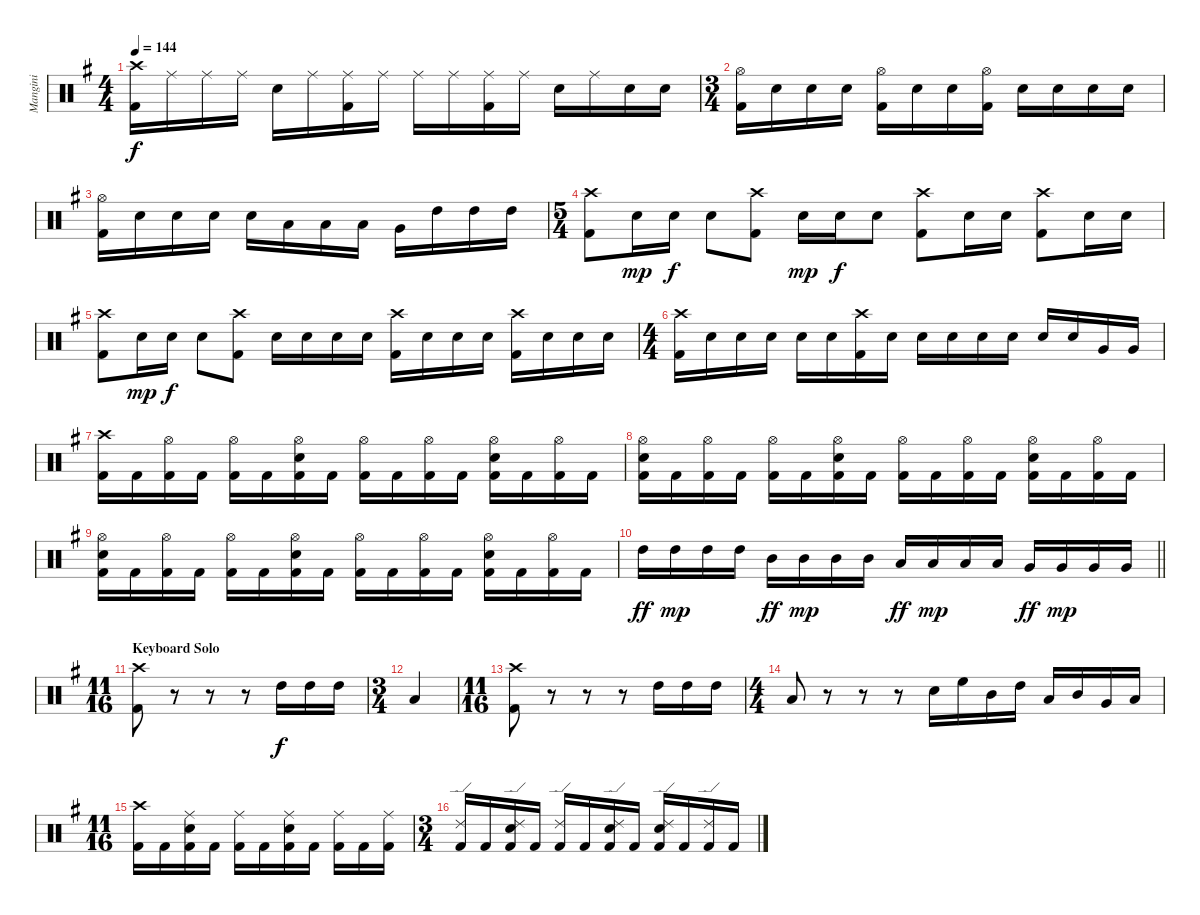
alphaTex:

\track ("Mangini" "Mangini") {instrument percussion}
\staff {score}
\articulation defaults
\ts (4 4)
\tempo 144
\clef neutral
\ks eminor
("Crash high (hit)" "Kick (hit) 2").16{dy f} "Ride (middle)".16 "Ride (middle)".16 "Ride (middle)".16 "Snare (hit) 2".16 "Ride (middle)".16 ("Ride (middle)" "Kick (hit) 2").16 "Ride (middle)".16 "Ride (middle)".16 "Ride (middle)".16 ("Ride (middle)" "Kick (hit) 2").16 "Ride (middle)".16 "Snare (hit) 2".16 "Ride (middle)".16 "Snare (hit) 2".16 "Snare (hit) 2".16 |
\ts (3 4)
("Hi-Hat (open)" "Kick (hit) 2").16 "Snare (hit) 2".16 "Snare (hit) 2".16 "Snare (hit) 2".16 ("Hi-Hat (open)" "Kick (hit) 2").16 "Snare (hit) 2".16 "Snare (hit) 2".16 ("Hi-Hat (open)" "Kick (hit) 2").16 "Snare (hit) 2".16 "Snare (hit) 2".16 "Snare (hit) 2".16 "Snare (hit) 2".16 |
("Hi-Hat (open)" "Kick (hit) 2").16 "Snare (hit) 2".16 "Snare (hit) 2".16 "Snare (hit) 2".16 "Snare (hit) 2".16 "Low Floor Tom (hit)".16 "Low Tom (hit)".16 "Low Floor Tom (hit)".16 "Very Low Tom (hit)".16 "High Tom (hit)".16 "High Tom (hit)".16 "High Tom (hit)".16 |
\ts (5 4)
("Crash high (hit)" "Kick (hit) 2").8 "Snare (hit) 2".16{dy mp} "Snare (hit) 2".16{dy f} "Snare (hit) 2".8 ("Crash high (hit)" "Kick (hit) 2").8 "Snare (hit) 2".16{dy mp} "Snare (hit) 2".16{dy f} "Snare (hit) 2".8 ("Crash high (hit)" "Kick (hit) 2").8 "Snare (hit) 2".16 "Snare (hit) 2".16 ("Crash high (hit)" "Kick (hit) 2").8 "Snare (hit) 2".16 "Snare (hit) 2".16 |
("Crash high (hit)" "Kick (hit) 2").8 "Snare (hit) 2".16{dy mp} "Snare (hit) 2".16{dy f} "Snare (hit) 2".8 ("Crash high (hit)" "Kick (hit) 2").8 "Snare (hit) 2".16 "Snare (hit) 2".16 "Snare (hit) 2".16 "Snare (hit) 2".16 ("Crash high (hit)" "Kick (hit) 2").16 "Snare (hit) 2".16 "Snare (hit) 2".16 "Snare (hit) 2".16 ("Crash high (hit)" "Kick (hit) 2").16 "Snare (hit) 2".16 "Snare (hit) 2".16 "Snare (hit) 2".16 |
\ts (4 4)
("Crash high (hit)" "Kick (hit) 2").16 "Snare (hit) 2".16 "Snare (hit) 2".16 "Snare (hit) 2".16 "Snare (hit) 2".16 "Snare (hit) 2".16 ("Crash high (hit)" "Kick (hit) 2").16 "Snare (hit) 2".16 "Snare (hit) 2".16 "Snare (hit) 2".16 "Snare (hit) 2".16 "Snare (hit) 2".16 "Snare (hit) 2".16 "Snare (hit) 2".16 "Very Low Tom (hit)".16 "Very Low Tom (hit)".16 |
("Crash high (hit)" "Kick (hit) 2").16 "Kick (hit) 2".16 ("Hi-Hat (open)" "Kick (hit) 2").16 "Kick (hit) 2".16 ("Hi-Hat (open)" "Kick (hit) 2").16 "Kick (hit) 2".16 ("Hi-Hat (open)" "Snare (hit) 2" "Kick (hit) 2").16 "Kick (hit) 2".16 ("Hi-Hat (open)" "Kick (hit) 2").16 "Kick (hit) 2".16 ("Hi-Hat (open)" "Kick (hit) 2").16 "Kick (hit) 2".16 ("Hi-Hat (open)" "Snare (hit) 2" "Kick (hit) 2").16 "Kick (hit) 2".16 ("Hi-Hat (open)" "Kick (hit) 2").16 "Kick (hit) 2".16 |
("Hi-Hat (open)" "Snare (hit) 2" "Kick (hit) 2").16 "Kick (hit) 2".16 ("Hi-Hat (open)" "Kick (hit) 2").16 "Kick (hit) 2".16 ("Hi-Hat (open)" "Kick (hit) 2").16 "Kick (hit) 2".16 ("Hi-Hat (open)" "Snare (hit) 2" "Kick (hit) 2").16 "Kick (hit) 2".16 ("Hi-Hat (open)" "Kick (hit) 2").16 "Kick (hit) 2".16 ("Hi-Hat (open)" "Kick (hit) 2").16 "Kick (hit) 2".16 ("Hi-Hat (open)" "Snare (hit) 2" "Kick (hit) 2").16 "Kick (hit) 2".16 ("Hi-Hat (open)" "Kick (hit) 2").16 "Kick (hit) 2".16 |
("Hi-Hat (open)" "Snare (hit) 2" "Kick (hit) 2").16 "Kick (hit) 2".16 ("Hi-Hat (open)" "Kick (hit) 2").16 "Kick (hit) 2".16 ("Hi-Hat (open)" "Kick (hit) 2").16 "Kick (hit) 2".16 ("Hi-Hat (open)" "Snare (hit) 2" "Kick (hit) 2").16 "Kick (hit) 2".16 ("Hi-Hat (open)" "Kick (hit) 2").16 "Kick (hit) 2".16 ("Hi-Hat (open)" "Kick (hit) 2").16 "Kick (hit) 2".16 ("Hi-Hat (open)" "Snare (hit) 2" "Kick (hit) 2").16 "Kick (hit) 2".16 ("Hi-Hat (open)" "Kick (hit) 2").16 "Kick (hit) 2".16 |
\barLineRight lightlight "High Tom (hit)".16{dy ff} "High Tom (hit)".16{dy mp} "High Tom (hit)".16 "High Tom (hit)".16 "Mid Tom (hit)".16{dy ff} "Mid Tom (hit)".16{dy mp} "Mid Tom (hit)".16 "Mid Tom (hit)".16 "Low Tom (hit)".16{dy ff} "Low Tom (hit)".16{dy mp} "Low Tom (hit)".16 "Low Tom (hit)".16 "Very Low Tom (hit)".16{dy ff} "Very Low Tom (hit)".16{dy mp} "Very Low Tom (hit)".16 "Very Low Tom (hit)".16
|
\ts (11 16)
\section ("" "Keyboard Solo")
("Crash high (hit)" "Kick (hit) 2").8 r.8 r.8 r.8 "High Tom (hit)".16{dy f} "High Tom (hit)".16 "High Tom (hit)".16 |
\ts (3 4)
"Low Tom (hit)".4 |
\ts (11 16)
("Crash high (hit)" "Kick (hit) 2").8 r.8 r.8 r.8 "High Tom (hit)".16 "High Tom (hit)".16 "High Tom (hit)".16 |
\ts (4 4)
"Low Tom (hit)".8 r.8 r.8 r.8 "Snare (hit) 2".16 "High Floor Tom (hit)".16 "Mid Tom (hit)".16 "High Tom (hit)".16 "Low Tom (hit)".16 "Mid Tom (hit)".16 "Very Low Tom (hit)".16 "Low Tom (hit)".16 |
\ts (11 16)
("Crash high (hit)" "Kick (hit) 2").16 "Kick (hit) 2".16 ("Ride (middle)" "Snare (hit) 2" "Kick (hit) 2").16 "Kick (hit) 2".16 ("Ride (middle)" "Kick (hit) 2").16 "Kick (hit) 2".16 ("Ride (middle)" "Snare (hit) 2" "Kick (hit) 2").16 "Kick (hit) 2".16 ("Ride (middle)" "Kick (hit) 2").16 "Kick (hit) 2".16 ("Ride (middle)" "Kick (hit) 2").16 |
\ts (3 4)
("Ride (edge) 2" "Kick (hit) 2").16 "Kick (hit) 2".16 ("Ride (edge) 2" "Snare (hit) 2" "Kick (hit) 2").16 "Kick (hit) 2".16 ("Ride (edge) 2" "Kick (hit) 2").16 "Kick (hit) 2".16 ("Ride (edge) 2" "Snare (hit) 2" "Kick (hit) 2").16 "Kick (hit) 2".16 ("Ride (edge) 2" "Snare (hit) 2" "Kick (hit) 2").16 "Kick (hit) 2".16 ("Ride (edge) 2" "Kick (hit) 2").16 "Kick (hit) 2".16
